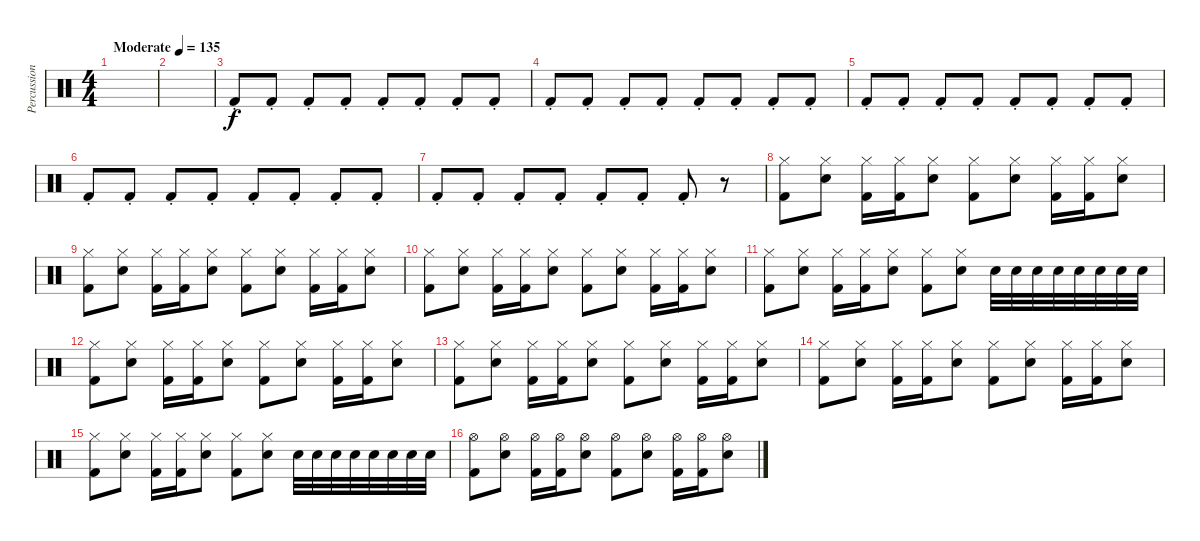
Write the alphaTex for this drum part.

\track ("Percussion" "Percussion") {instrument percussion}
\staff {score}
\articulation defaults
\ts (4 4)
\tempo (135 "Moderate")
\clef neutral
\ks c
|
|
"Kick (hit) 2"{st}.8 "Kick (hit) 2"{st}.8 "Kick (hit) 2"{st}.8 "Kick (hit) 2"{st}.8 "Kick (hit) 2"{st}.8 "Kick (hit) 2"{st}.8 "Kick (hit) 2"{st}.8 "Kick (hit) 2"{st}.8 |
"Kick (hit) 2"{st}.8 "Kick (hit) 2"{st}.8 "Kick (hit) 2"{st}.8 "Kick (hit) 2"{st}.8 "Kick (hit) 2"{st}.8 "Kick (hit) 2"{st}.8 "Kick (hit) 2"{st}.8 "Kick (hit) 2"{st}.8 |
"Kick (hit) 2"{st}.8 "Kick (hit) 2"{st}.8 "Kick (hit) 2"{st}.8 "Kick (hit) 2"{st}.8 "Kick (hit) 2"{st}.8 "Kick (hit) 2"{st}.8 "Kick (hit) 2"{st}.8 "Kick (hit) 2"{st}.8 |
"Kick (hit) 2"{st}.8 "Kick (hit) 2"{st}.8 "Kick (hit) 2"{st}.8 "Kick (hit) 2"{st}.8 "Kick (hit) 2"{st}.8 "Kick (hit) 2"{st}.8 "Kick (hit) 2"{st}.8 "Kick (hit) 2"{st}.8 |
"Kick (hit) 2"{st}.8 "Kick (hit) 2"{st}.8 "Kick (hit) 2"{st}.8 "Kick (hit) 2"{st}.8 "Kick (hit) 2"{st}.8 "Kick (hit) 2"{st}.8 "Kick (hit) 2"{st}.8 r.8 |
("Hi-Hat (closed)" "Kick (hit) 2").8 ("Hi-Hat (closed)" "Electric Snare (hit)").8 ("Hi-Hat (closed)" "Kick (hit) 2").16 ("Hi-Hat (closed)" "Kick (hit) 2").16 ("Hi-Hat (closed)" "Electric Snare (hit)").8 ("Hi-Hat (closed)" "Kick (hit) 2").8 ("Hi-Hat (closed)" "Electric Snare (hit)").8 ("Hi-Hat (closed)" "Kick (hit) 2").16 ("Hi-Hat (closed)" "Kick (hit) 2").16 ("Hi-Hat (closed)" "Electric Snare (hit)").8 |
("Hi-Hat (closed)" "Kick (hit) 2").8 ("Hi-Hat (closed)" "Electric Snare (hit)").8 ("Hi-Hat (closed)" "Kick (hit) 2").16 ("Hi-Hat (closed)" "Kick (hit) 2").16 ("Hi-Hat (closed)" "Electric Snare (hit)").8 ("Hi-Hat (closed)" "Kick (hit) 2").8 ("Hi-Hat (closed)" "Electric Snare (hit)").8 ("Hi-Hat (closed)" "Kick (hit) 2").16 ("Hi-Hat (closed)" "Kick (hit) 2").16 ("Hi-Hat (closed)" "Electric Snare (hit)").8 |
("Hi-Hat (closed)" "Kick (hit) 2").8 ("Hi-Hat (closed)" "Electric Snare (hit)").8 ("Hi-Hat (closed)" "Kick (hit) 2").16 ("Hi-Hat (closed)" "Kick (hit) 2").16 ("Hi-Hat (closed)" "Electric Snare (hit)").8 ("Hi-Hat (closed)" "Kick (hit) 2").8 ("Hi-Hat (closed)" "Electric Snare (hit)").8 ("Hi-Hat (closed)" "Kick (hit) 2").16 ("Hi-Hat (closed)" "Kick (hit) 2").16 ("Hi-Hat (closed)" "Electric Snare (hit)").8 |
("Hi-Hat (closed)" "Kick (hit) 2").8 ("Hi-Hat (closed)" "Electric Snare (hit)").8 ("Hi-Hat (closed)" "Kick (hit) 2").16 ("Hi-Hat (closed)" "Kick (hit) 2").16 ("Hi-Hat (closed)" "Electric Snare (hit)").8 ("Hi-Hat (closed)" "Kick (hit) 2").8 ("Hi-Hat (closed)" "Electric Snare (hit)").8 "Electric Snare (hit)".32 "Electric Snare (hit)".32 "Electric Snare (hit)".32 "Electric Snare (hit)".32 "Electric Snare (hit)".32 "Electric Snare (hit)".32 "Electric Snare (hit)".32 "Electric Snare (hit)".32 |
("Hi-Hat (closed)" "Kick (hit) 2").8 ("Hi-Hat (closed)" "Electric Snare (hit)").8 ("Hi-Hat (closed)" "Kick (hit) 2").16 ("Hi-Hat (closed)" "Kick (hit) 2").16 ("Hi-Hat (closed)" "Electric Snare (hit)").8 ("Hi-Hat (closed)" "Kick (hit) 2").8 ("Hi-Hat (closed)" "Electric Snare (hit)").8 ("Hi-Hat (closed)" "Kick (hit) 2").16 ("Hi-Hat (closed)" "Kick (hit) 2").16 ("Hi-Hat (closed)" "Electric Snare (hit)").8 |
("Hi-Hat (closed)" "Kick (hit) 2").8 ("Hi-Hat (closed)" "Electric Snare (hit)").8 ("Hi-Hat (closed)" "Kick (hit) 2").16 ("Hi-Hat (closed)" "Kick (hit) 2").16 ("Hi-Hat (closed)" "Electric Snare (hit)").8 ("Hi-Hat (closed)" "Kick (hit) 2").8 ("Hi-Hat (closed)" "Electric Snare (hit)").8 ("Hi-Hat (closed)" "Kick (hit) 2").16 ("Hi-Hat (closed)" "Kick (hit) 2").16 ("Hi-Hat (closed)" "Electric Snare (hit)").8 |
("Hi-Hat (closed)" "Kick (hit) 2").8 ("Hi-Hat (closed)" "Electric Snare (hit)").8 ("Hi-Hat (closed)" "Kick (hit) 2").16 ("Hi-Hat (closed)" "Kick (hit) 2").16 ("Hi-Hat (closed)" "Electric Snare (hit)").8 ("Hi-Hat (closed)" "Kick (hit) 2").8 ("Hi-Hat (closed)" "Electric Snare (hit)").8 ("Hi-Hat (closed)" "Kick (hit) 2").16 ("Hi-Hat (closed)" "Kick (hit) 2").16 ("Hi-Hat (closed)" "Electric Snare (hit)").8 |
("Hi-Hat (closed)" "Kick (hit) 2").8 ("Hi-Hat (closed)" "Electric Snare (hit)").8 ("Hi-Hat (closed)" "Kick (hit) 2").16 ("Hi-Hat (closed)" "Kick (hit) 2").16 ("Hi-Hat (closed)" "Electric Snare (hit)").8 ("Hi-Hat (closed)" "Kick (hit) 2").8 ("Hi-Hat (closed)" "Electric Snare (hit)").8 "Electric Snare (hit)".32 "Electric Snare (hit)".32 "Electric Snare (hit)".32 "Electric Snare (hit)".32 "Electric Snare (hit)".32 "Electric Snare (hit)".32 "Electric Snare (hit)".32 "Electric Snare (hit)".32 |
("Hi-Hat (open)" "Kick (hit) 2").8 ("Hi-Hat (open)" "Electric Snare (hit)").8 ("Hi-Hat (open)" "Kick (hit) 2").16 ("Hi-Hat (open)" "Kick (hit) 2").16 ("Hi-Hat (open)" "Electric Snare (hit)").8 ("Hi-Hat (open)" "Kick (hit) 2").8 ("Hi-Hat (open)" "Electric Snare (hit)").8 ("Hi-Hat (open)" "Kick (hit) 2").16 ("Hi-Hat (open)" "Kick (hit) 2").16 ("Hi-Hat (open)" "Electric Snare (hit)").8
